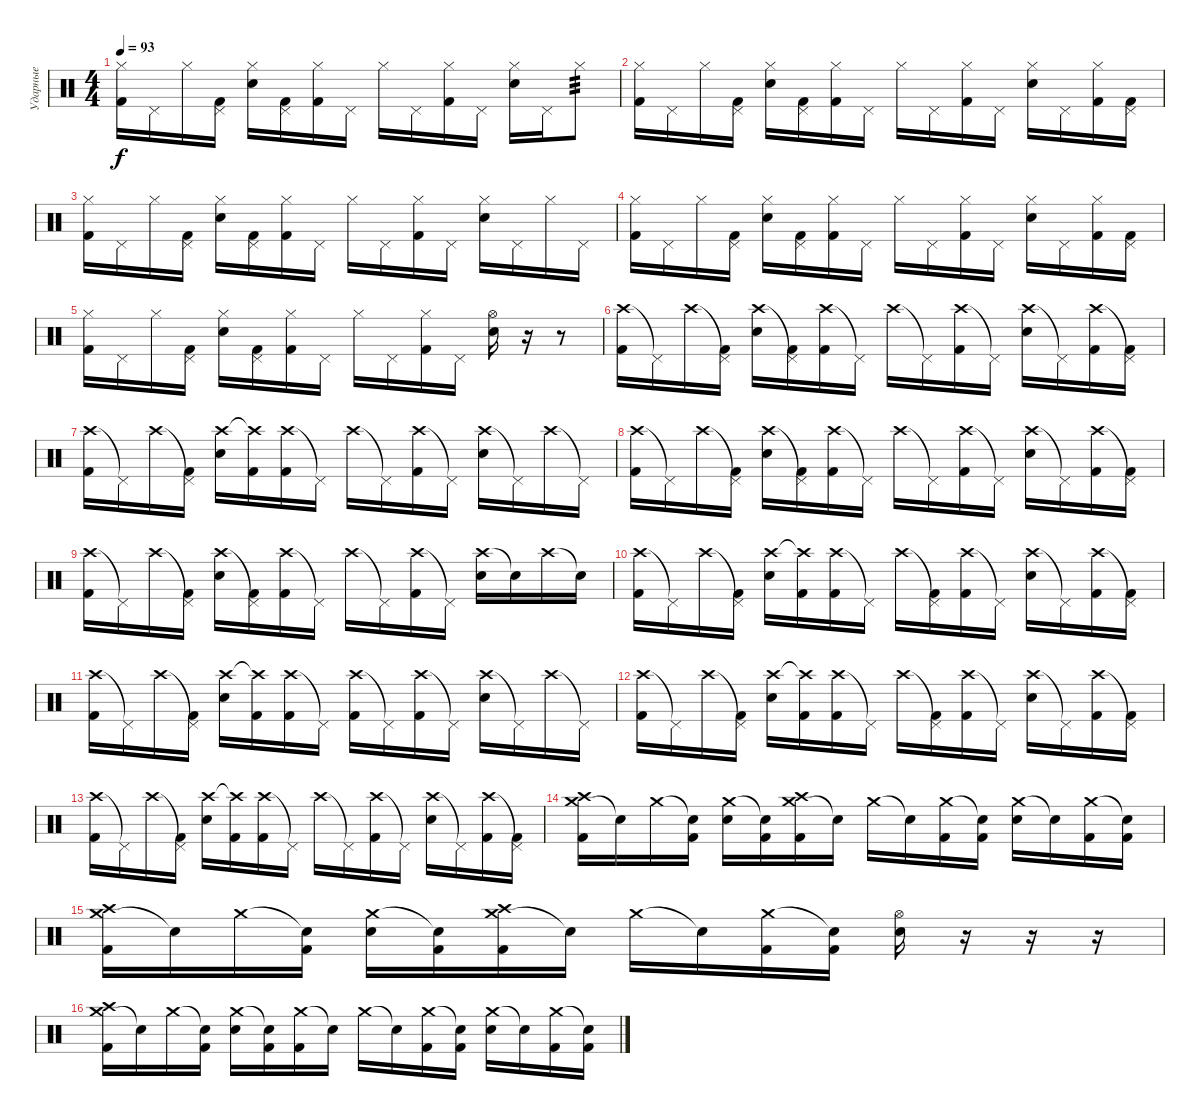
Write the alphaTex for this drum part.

\track ("Ударные" "Ударные") {instrument percussion}
\staff {score}
\articulation defaults
\ts (4 4)
\tempo 93
\clef neutral
\ks c
("Hi-Hat (closed)" "Kick (hit) 2").16{dy f} "Pedal Hi-Hat (hit)".16 "Hi-Hat (closed)".16 ("Pedal Hi-Hat (hit)" "Kick (hit) 2").16 ("Hi-Hat (closed)" "Electric Snare (hit)").16 ("Pedal Hi-Hat (hit)" "Kick (hit) 2").16 ("Hi-Hat (closed)" "Kick (hit) 2").16 "Pedal Hi-Hat (hit)".16 "Hi-Hat (closed)".16 "Pedal Hi-Hat (hit)".16 ("Hi-Hat (closed)" "Kick (hit) 2").16 "Pedal Hi-Hat (hit)".16 ("Hi-Hat (closed)" "Electric Snare (hit)").16 "Pedal Hi-Hat (hit)".16 "Hi-Hat (closed)".8{tp 3} |
("Hi-Hat (closed)" "Kick (hit) 2").16 "Pedal Hi-Hat (hit)".16 "Hi-Hat (closed)".16 ("Pedal Hi-Hat (hit)" "Kick (hit) 2").16 ("Hi-Hat (closed)" "Electric Snare (hit)").16 ("Pedal Hi-Hat (hit)" "Kick (hit) 2").16 ("Hi-Hat (closed)" "Kick (hit) 2").16 "Pedal Hi-Hat (hit)".16 "Hi-Hat (closed)".16 "Pedal Hi-Hat (hit)".16 ("Hi-Hat (closed)" "Kick (hit) 2").16 "Pedal Hi-Hat (hit)".16 ("Hi-Hat (closed)" "Electric Snare (hit)").16 "Pedal Hi-Hat (hit)".16 ("Hi-Hat (closed)" "Kick (hit) 2").16 ("Pedal Hi-Hat (hit)" "Kick (hit) 2").16 |
("Hi-Hat (closed)" "Kick (hit) 2").16 "Pedal Hi-Hat (hit)".16 "Hi-Hat (closed)".16 ("Pedal Hi-Hat (hit)" "Kick (hit) 2").16 ("Hi-Hat (closed)" "Electric Snare (hit)").16 ("Pedal Hi-Hat (hit)" "Kick (hit) 2").16 ("Hi-Hat (closed)" "Kick (hit) 2").16 "Pedal Hi-Hat (hit)".16 "Hi-Hat (closed)".16 "Pedal Hi-Hat (hit)".16 ("Hi-Hat (closed)" "Kick (hit) 2").16 "Pedal Hi-Hat (hit)".16 ("Hi-Hat (closed)" "Electric Snare (hit)").16 "Pedal Hi-Hat (hit)".16 "Hi-Hat (closed)".16 "Pedal Hi-Hat (hit)".16 |
("Hi-Hat (closed)" "Kick (hit) 2").16 "Pedal Hi-Hat (hit)".16 "Hi-Hat (closed)".16 ("Pedal Hi-Hat (hit)" "Kick (hit) 2").16 ("Hi-Hat (closed)" "Electric Snare (hit)").16 ("Pedal Hi-Hat (hit)" "Kick (hit) 2").16 ("Hi-Hat (closed)" "Kick (hit) 2").16 "Pedal Hi-Hat (hit)".16 "Hi-Hat (closed)".16 "Pedal Hi-Hat (hit)".16 ("Hi-Hat (closed)" "Kick (hit) 2").16 "Pedal Hi-Hat (hit)".16 ("Hi-Hat (closed)" "Electric Snare (hit)").16 "Pedal Hi-Hat (hit)".16 ("Hi-Hat (closed)" "Kick (hit) 2").16 ("Pedal Hi-Hat (hit)" "Kick (hit) 2").16 |
("Hi-Hat (closed)" "Kick (hit) 2").16 "Pedal Hi-Hat (hit)".16 "Hi-Hat (closed)".16 ("Pedal Hi-Hat (hit)" "Kick (hit) 2").16 ("Hi-Hat (closed)" "Electric Snare (hit)").16 ("Pedal Hi-Hat (hit)" "Kick (hit) 2").16 ("Hi-Hat (closed)" "Kick (hit) 2").16 "Pedal Hi-Hat (hit)".16 "Hi-Hat (closed)".16 "Pedal Hi-Hat (hit)".16 ("Hi-Hat (closed)" "Kick (hit) 2").16 "Pedal Hi-Hat (hit)".16 ("Hi-Hat (open)" "Electric Snare (hit)").16 r.16{volume 0} r.8 |
("Crash high (hit)" "Kick (hit) 2").16{volume 14} "Pedal Hi-Hat (hit)"{t}.16 "Crash high (hit)".16 ("Pedal Hi-Hat (hit)"{t} "Kick (hit) 2").16 ("Crash high (hit)" "Electric Snare (hit)").16 ("Pedal Hi-Hat (hit)"{t} "Kick (hit) 2").16 ("Crash high (hit)" "Kick (hit) 2").16 "Pedal Hi-Hat (hit)"{t}.16 "Crash high (hit)".16 "Pedal Hi-Hat (hit)"{t}.16 ("Crash high (hit)" "Kick (hit) 2").16 "Pedal Hi-Hat (hit)"{t}.16 ("Crash high (hit)" "Electric Snare (hit)").16 "Pedal Hi-Hat (hit)"{t}.16 ("Crash high (hit)" "Kick (hit) 2").16 ("Pedal Hi-Hat (hit)"{t} "Kick (hit) 2").16 |
("Crash high (hit)" "Kick (hit) 2").16 "Pedal Hi-Hat (hit)"{t}.16 "Crash high (hit)".16 ("Pedal Hi-Hat (hit)"{t} "Kick (hit) 2").16 ("Crash high (hit)" "Electric Snare (hit)").16 ("Crash high (hit)"{t} "Kick (hit) 2").16 ("Crash high (hit)" "Kick (hit) 2").16 "Pedal Hi-Hat (hit)"{t}.16 "Crash high (hit)".16 "Pedal Hi-Hat (hit)"{t}.16 ("Crash high (hit)" "Kick (hit) 2").16 "Pedal Hi-Hat (hit)"{t}.16 ("Crash high (hit)" "Electric Snare (hit)").16 "Pedal Hi-Hat (hit)"{t}.16 "Crash high (hit)".16 "Pedal Hi-Hat (hit)"{t}.16 |
("Crash high (hit)" "Kick (hit) 2").16 "Pedal Hi-Hat (hit)"{t}.16 "Crash high (hit)".16 ("Pedal Hi-Hat (hit)"{t} "Kick (hit) 2").16 ("Crash high (hit)" "Electric Snare (hit)").16 ("Pedal Hi-Hat (hit)"{t} "Kick (hit) 2").16 ("Crash high (hit)" "Kick (hit) 2").16 "Pedal Hi-Hat (hit)"{t}.16 "Crash high (hit)".16 "Pedal Hi-Hat (hit)"{t}.16 ("Crash high (hit)" "Kick (hit) 2").16 "Pedal Hi-Hat (hit)"{t}.16 ("Crash high (hit)" "Electric Snare (hit)").16 "Pedal Hi-Hat (hit)"{t}.16 ("Crash high (hit)" "Kick (hit) 2").16 ("Pedal Hi-Hat (hit)"{t} "Kick (hit) 2").16 |
("Crash high (hit)" "Kick (hit) 2").16 "Pedal Hi-Hat (hit)"{t}.16 "Crash high (hit)".16 ("Pedal Hi-Hat (hit)"{t} "Kick (hit) 2").16 ("Crash high (hit)" "Electric Snare (hit)").16 ("Pedal Hi-Hat (hit)"{t} "Kick (hit) 2").16 ("Crash high (hit)" "Kick (hit) 2").16 "Pedal Hi-Hat (hit)"{t}.16 "Crash high (hit)".16 "Pedal Hi-Hat (hit)"{t}.16 ("Crash high (hit)" "Kick (hit) 2").16 "Pedal Hi-Hat (hit)"{t}.16 ("Crash high (hit)" "Electric Snare (hit)").16 "Snare (hit)"{t}.16 "Crash high (hit)".16 "Snare (hit)"{t}.16 |
("Crash high (hit)" "Kick (hit) 2").16 "Pedal Hi-Hat (hit)"{t}.16 "Crash high (hit)".16 ("Pedal Hi-Hat (hit)"{t} "Kick (hit) 2").16 ("Crash high (hit)" "Electric Snare (hit)").16 ("Crash high (hit)"{t} "Kick (hit) 2").16 ("Crash high (hit)" "Kick (hit) 2").16 "Pedal Hi-Hat (hit)"{t}.16 "Crash high (hit)".16 ("Pedal Hi-Hat (hit)"{t} "Kick (hit) 2").16 ("Crash high (hit)" "Kick (hit) 2").16 "Pedal Hi-Hat (hit)"{t}.16 ("Crash high (hit)" "Electric Snare (hit)").16 "Pedal Hi-Hat (hit)"{t}.16 ("Crash high (hit)" "Kick (hit) 2").16 ("Pedal Hi-Hat (hit)"{t} "Kick (hit) 2").16 |
("Crash high (hit)" "Kick (hit) 2").16 "Pedal Hi-Hat (hit)"{t}.16 "Crash high (hit)".16 ("Pedal Hi-Hat (hit)"{t} "Kick (hit) 2").16 ("Crash high (hit)" "Electric Snare (hit)").16 ("Crash high (hit)"{t} "Kick (hit) 2").16 ("Crash high (hit)" "Kick (hit) 2").16 "Pedal Hi-Hat (hit)"{t}.16 ("Crash high (hit)" "Kick (hit) 2").16 "Pedal Hi-Hat (hit)"{t}.16 ("Crash high (hit)" "Kick (hit) 2").16 "Pedal Hi-Hat (hit)"{t}.16 ("Crash high (hit)" "Electric Snare (hit)").16 "Pedal Hi-Hat (hit)"{t}.16 "Crash high (hit)".16 "Pedal Hi-Hat (hit)"{t}.16 |
("Crash high (hit)" "Kick (hit) 2").16 "Pedal Hi-Hat (hit)"{t}.16 "Crash high (hit)".16 ("Pedal Hi-Hat (hit)"{t} "Kick (hit) 2").16 ("Crash high (hit)" "Electric Snare (hit)").16 ("Crash high (hit)"{t} "Kick (hit) 2").16 ("Crash high (hit)" "Kick (hit) 2").16 "Pedal Hi-Hat (hit)"{t}.16 "Crash high (hit)".16 ("Pedal Hi-Hat (hit)"{t} "Kick (hit) 2").16 ("Crash high (hit)" "Kick (hit) 2").16 "Pedal Hi-Hat (hit)"{t}.16 ("Crash high (hit)" "Electric Snare (hit)").16 "Pedal Hi-Hat (hit)"{t}.16 ("Crash high (hit)" "Kick (hit) 2").16 ("Pedal Hi-Hat (hit)"{t} "Kick (hit) 2").16 |
("Crash high (hit)" "Kick (hit) 2").16 "Pedal Hi-Hat (hit)"{t}.16 "Crash high (hit)".16 ("Pedal Hi-Hat (hit)"{t} "Kick (hit) 2").16 ("Crash high (hit)" "Electric Snare (hit)").16 ("Crash high (hit)"{t} "Kick (hit) 2").16 ("Crash high (hit)" "Kick (hit) 2").16 "Pedal Hi-Hat (hit)"{t}.16 "Crash high (hit)".16 "Pedal Hi-Hat (hit)"{t}.16 ("Crash high (hit)" "Kick (hit) 2").16 "Pedal Hi-Hat (hit)"{t}.16 ("Crash high (hit)" "Electric Snare (hit)").16 "Pedal Hi-Hat (hit)"{t}.16 ("Crash high (hit)" "Kick (hit) 2").16 ("Pedal Hi-Hat (hit)"{t} "Kick (hit) 2").16 |
("Crash medium (hit)" "Crash high (hit)" "Kick (hit) 2").16 "Snare (hit)"{t}.16 "Crash medium (hit)".16 ("Snare (hit)"{t} "Kick (hit) 2").16 ("Crash medium (hit)" "Electric Snare (hit)").16 ("Snare (hit)"{t} "Kick (hit) 2").16 ("Crash medium (hit)" "Crash high (hit)" "Kick (hit) 2").16 "Snare (hit)"{t}.16 "Crash medium (hit)".16 "Snare (hit)"{t}.16 ("Crash medium (hit)" "Kick (hit) 2").16 ("Snare (hit)"{t} "Kick (hit) 2").16 ("Crash medium (hit)" "Electric Snare (hit)").16 "Snare (hit)"{t}.16 ("Crash medium (hit)" "Kick (hit) 2").16 ("Snare (hit)"{t} "Kick (hit) 2").16 |
("Crash medium (hit)" "Crash high (hit)" "Kick (hit) 2").16 "Snare (hit)"{t}.16 "Crash medium (hit)".16 ("Snare (hit)"{t} "Kick (hit) 2").16 ("Crash medium (hit)" "Electric Snare (hit)").16 ("Snare (hit)"{t} "Kick (hit) 2").16 ("Crash medium (hit)" "Crash high (hit)" "Kick (hit) 2").16 "Snare (hit)"{t}.16 "Crash medium (hit)".16 "Snare (hit)"{t}.16 ("Crash medium (hit)" "Kick (hit) 2").16 ("Snare (hit)"{t} "Kick (hit) 2").16 ("Hi-Hat (open)" "Electric Snare (hit)").16 r.16 r.16 r.16 |
("Crash medium (hit)" "Crash high (hit)" "Kick (hit) 2").16 "Snare (hit)"{t}.16 "Crash medium (hit)".16 ("Snare (hit)"{t} "Kick (hit) 2").16 ("Crash medium (hit)" "Electric Snare (hit)").16 ("Snare (hit)"{t} "Kick (hit) 2").16 ("Crash medium (hit)" "Kick (hit) 2").16 "Snare (hit)"{t}.16 "Crash medium (hit)".16 "Snare (hit)"{t}.16 ("Crash medium (hit)" "Kick (hit) 2").16 ("Snare (hit)"{t} "Kick (hit) 2").16 ("Crash medium (hit)" "Electric Snare (hit)").16 "Snare (hit)"{t}.16 ("Crash medium (hit)" "Kick (hit) 2").16 ("Snare (hit)"{t} "Kick (hit) 2").16
